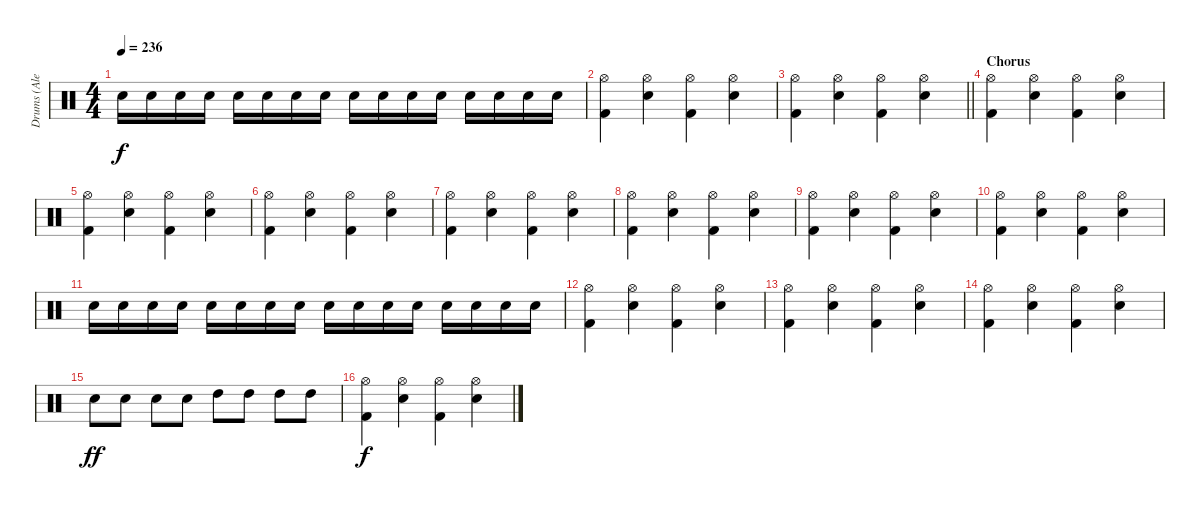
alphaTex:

\track ("Drums (Alex Van Halen)" "Drums (Ale") {instrument percussion}
\staff {score}
\articulation defaults
\ts (4 4)
\tempo 236
\clef neutral
\ks c "Snare (hit) 2".16{dy f} "Snare (hit) 2".16 "Snare (hit) 2".16 "Snare (hit) 2".16 "Snare (hit) 2".16 "Snare (hit) 2".16 "Snare (hit) 2".16 "Snare (hit) 2".16 "Snare (hit) 2".16 "Snare (hit) 2".16 "Snare (hit) 2".16 "Snare (hit) 2".16 "Snare (hit) 2".16 "Snare (hit) 2".16 "Snare (hit) 2".16 "Snare (hit) 2".16
|
("Hi-Hat (open)" "Kick (hit) 2").4 ("Hi-Hat (open)" "Snare (hit) 2").4 ("Hi-Hat (open)" "Kick (hit) 2").4 ("Hi-Hat (open)" "Snare (hit) 2").4 |
\barLineRight lightlight
("Hi-Hat (open)" "Kick (hit) 2").4 ("Hi-Hat (open)" "Snare (hit) 2").4 ("Hi-Hat (open)" "Kick (hit) 2").4 ("Hi-Hat (open)" "Snare (hit) 2").4 |
\section ("" "Chorus")
("Hi-Hat (open)" "Kick (hit) 2").4 ("Hi-Hat (open)" "Snare (hit) 2").4 ("Hi-Hat (open)" "Kick (hit) 2").4 ("Hi-Hat (open)" "Snare (hit) 2").4 |
("Hi-Hat (open)" "Kick (hit) 2").4 ("Hi-Hat (open)" "Snare (hit) 2").4 ("Hi-Hat (open)" "Kick (hit) 2").4 ("Hi-Hat (open)" "Snare (hit) 2").4 |
("Hi-Hat (open)" "Kick (hit) 2").4 ("Hi-Hat (open)" "Snare (hit) 2").4 ("Hi-Hat (open)" "Kick (hit) 2").4 ("Hi-Hat (open)" "Snare (hit) 2").4 |
("Hi-Hat (open)" "Kick (hit) 2").4 ("Hi-Hat (open)" "Snare (hit) 2").4 ("Hi-Hat (open)" "Kick (hit) 2").4 ("Hi-Hat (open)" "Snare (hit) 2").4 |
("Hi-Hat (open)" "Kick (hit) 2").4 ("Hi-Hat (open)" "Snare (hit) 2").4 ("Hi-Hat (open)" "Kick (hit) 2").4 ("Hi-Hat (open)" "Snare (hit) 2").4 |
("Hi-Hat (open)" "Kick (hit) 2").4 ("Hi-Hat (open)" "Snare (hit) 2").4 ("Hi-Hat (open)" "Kick (hit) 2").4 ("Hi-Hat (open)" "Snare (hit) 2").4 |
("Hi-Hat (open)" "Kick (hit) 2").4 ("Hi-Hat (open)" "Snare (hit) 2").4 ("Hi-Hat (open)" "Kick (hit) 2").4 ("Hi-Hat (open)" "Snare (hit) 2").4 |
"Snare (hit) 2".16 "Snare (hit) 2".16 "Snare (hit) 2".16 "Snare (hit) 2".16 "Snare (hit) 2".16 "Snare (hit) 2".16 "Snare (hit) 2".16 "Snare (hit) 2".16 "Snare (hit) 2".16 "Snare (hit) 2".16 "Snare (hit) 2".16 "Snare (hit) 2".16 "Snare (hit) 2".16 "Snare (hit) 2".16 "Snare (hit) 2".16 "Snare (hit) 2".16 |
("Hi-Hat (open)" "Kick (hit) 2").4 ("Hi-Hat (open)" "Snare (hit) 2").4 ("Hi-Hat (open)" "Kick (hit) 2").4 ("Hi-Hat (open)" "Snare (hit) 2").4 |
("Hi-Hat (open)" "Kick (hit) 2").4 ("Hi-Hat (open)" "Snare (hit) 2").4 ("Hi-Hat (open)" "Kick (hit) 2").4 ("Hi-Hat (open)" "Snare (hit) 2").4 |
("Hi-Hat (open)" "Kick (hit) 2").4 ("Hi-Hat (open)" "Snare (hit) 2").4 ("Hi-Hat (open)" "Kick (hit) 2").4 ("Hi-Hat (open)" "Snare (hit) 2").4 |
"Snare (hit) 2".8{dy ff} "Snare (hit) 2".8 "Snare (hit) 2".8 "Snare (hit) 2".8 "High Tom (hit)".8 "High Tom (hit)".8 "High Tom (hit)".8 "High Tom (hit)".8 |
("Hi-Hat (open)" "Kick (hit) 2").4{dy f} ("Hi-Hat (open)" "Snare (hit) 2").4 ("Hi-Hat (open)" "Kick (hit) 2").4 ("Hi-Hat (open)" "Snare (hit) 2").4
